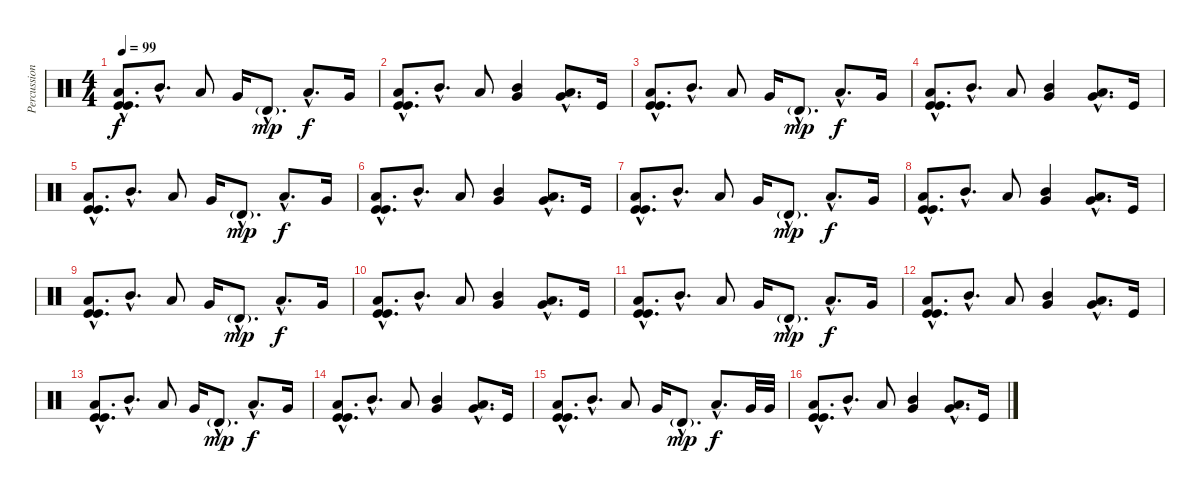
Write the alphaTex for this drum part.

\track ("Percussions2" "Percussion") {instrument percussion}
\staff {score}
\articulation defaults
\ts (4 4)
\tempo 99
\clef neutral
\ks c
("Low Floor Tom (hit)"{hac} "Kick (hit)"{hac} "Kick (hit)"{hac}).8{d dy f} "Mid Tom (hit)"{hac}.8{d} "Low Tom (hit)".8 "Very Low Tom (hit)".16 "Timbale high (hit)"{g hac}.8{d dy mp} "Low Floor Tom (hit)"{hac}.8{d dy f} "Very Low Tom (hit)".16 |
("Low Floor Tom (hit)"{hac} "Kick (hit)"{hac} "Kick (hit)"{hac}).8{d} "Mid Tom (hit)"{hac}.8{d} "Low Tom (hit)".8 ("Very Low Tom (hit)" "Mid Tom (hit)").4 ("Very Low Tom (hit)"{hac} "Low Floor Tom (hit)"{hac}).8{d} "Kick (hit)".16 |
("Low Floor Tom (hit)"{hac} "Kick (hit)"{hac} "Kick (hit)"{hac}).8{d} "Mid Tom (hit)"{hac}.8{d} "Low Tom (hit)".8 "Very Low Tom (hit)".16 "Timbale high (hit)"{g hac}.8{d dy mp} "Low Floor Tom (hit)"{hac}.8{d dy f} "Very Low Tom (hit)".16 |
("Low Floor Tom (hit)"{hac} "Kick (hit)"{hac} "Kick (hit)"{hac}).8{d} "Mid Tom (hit)"{hac}.8{d} "Low Tom (hit)".8 ("Very Low Tom (hit)" "Mid Tom (hit)").4 ("Very Low Tom (hit)"{hac} "Low Floor Tom (hit)"{hac}).8{d} "Kick (hit)".16 |
("Low Floor Tom (hit)"{hac} "Kick (hit)"{hac} "Kick (hit)"{hac}).8{d} "Mid Tom (hit)"{hac}.8{d} "Low Tom (hit)".8 "Very Low Tom (hit)".16 "Timbale high (hit)"{g hac}.8{d dy mp} "Low Floor Tom (hit)"{hac}.8{d dy f} "Very Low Tom (hit)".16 |
("Low Floor Tom (hit)"{hac} "Kick (hit)"{hac} "Kick (hit)"{hac}).8{d} "Mid Tom (hit)"{hac}.8{d} "Low Tom (hit)".8 ("Very Low Tom (hit)" "Mid Tom (hit)").4 ("Very Low Tom (hit)"{hac} "Low Floor Tom (hit)"{hac}).8{d} "Kick (hit)".16 |
("Low Floor Tom (hit)"{hac} "Kick (hit)"{hac} "Kick (hit)"{hac}).8{d} "Mid Tom (hit)"{hac}.8{d} "Low Tom (hit)".8 "Very Low Tom (hit)".16 "Timbale high (hit)"{g hac}.8{d dy mp} "Low Floor Tom (hit)"{hac}.8{d dy f} "Very Low Tom (hit)".16 |
("Low Floor Tom (hit)"{hac} "Kick (hit)"{hac} "Kick (hit)"{hac}).8{d} "Mid Tom (hit)"{hac}.8{d} "Low Tom (hit)".8 ("Very Low Tom (hit)" "Mid Tom (hit)").4 ("Very Low Tom (hit)"{hac} "Low Floor Tom (hit)"{hac}).8{d} "Kick (hit)".16 |
("Low Floor Tom (hit)"{hac} "Kick (hit)"{hac} "Kick (hit)"{hac}).8{d} "Mid Tom (hit)"{hac}.8{d} "Low Tom (hit)".8 "Very Low Tom (hit)".16 "Timbale high (hit)"{g hac}.8{d dy mp} "Low Floor Tom (hit)"{hac}.8{d dy f} "Very Low Tom (hit)".16 |
("Low Floor Tom (hit)"{hac} "Kick (hit)"{hac} "Kick (hit)"{hac}).8{d} "Mid Tom (hit)"{hac}.8{d} "Low Tom (hit)".8 ("Very Low Tom (hit)" "Mid Tom (hit)").4 ("Very Low Tom (hit)"{hac} "Low Floor Tom (hit)"{hac}).8{d} "Kick (hit)".16 |
("Low Floor Tom (hit)"{hac} "Kick (hit)"{hac} "Kick (hit)"{hac}).8{d} "Mid Tom (hit)"{hac}.8{d} "Low Tom (hit)".8 "Very Low Tom (hit)".16 "Timbale high (hit)"{g hac}.8{d dy mp} "Low Floor Tom (hit)"{hac}.8{d dy f} "Very Low Tom (hit)".16 |
("Low Floor Tom (hit)"{hac} "Kick (hit)"{hac} "Kick (hit)"{hac}).8{d} "Mid Tom (hit)"{hac}.8{d} "Low Tom (hit)".8 ("Very Low Tom (hit)" "Mid Tom (hit)").4 ("Very Low Tom (hit)"{hac} "Low Floor Tom (hit)"{hac}).8{d} "Kick (hit)".16 |
("Low Floor Tom (hit)"{hac} "Kick (hit)"{hac} "Kick (hit)"{hac}).8{d} "Mid Tom (hit)"{hac}.8{d} "Low Tom (hit)".8 "Very Low Tom (hit)".16 "Timbale high (hit)"{g hac}.8{d dy mp} "Low Floor Tom (hit)"{hac}.8{d dy f} "Very Low Tom (hit)".16 |
("Low Floor Tom (hit)"{hac} "Kick (hit)"{hac} "Kick (hit)"{hac}).8{d} "Mid Tom (hit)"{hac}.8{d} "Low Tom (hit)".8 ("Very Low Tom (hit)" "Mid Tom (hit)").4 ("Very Low Tom (hit)"{hac} "Low Floor Tom (hit)"{hac}).8{d} "Kick (hit)".16 |
("Low Floor Tom (hit)"{hac} "Kick (hit)"{hac} "Kick (hit)"{hac}).8{d} "Mid Tom (hit)"{hac}.8{d} "Low Tom (hit)".8 "Very Low Tom (hit)".16 "Timbale high (hit)"{g hac}.8{d dy mp} "Low Floor Tom (hit)"{hac}.8{d dy f} "Very Low Tom (hit)".32 "Very Low Tom (hit)".32 |
("Low Floor Tom (hit)"{hac} "Kick (hit)"{hac} "Kick (hit)"{hac}).8{d} "Mid Tom (hit)"{hac}.8{d} "Low Tom (hit)".8 ("Very Low Tom (hit)" "Mid Tom (hit)").4 ("Very Low Tom (hit)"{hac} "Low Floor Tom (hit)"{hac}).8{d} "Kick (hit)".16
